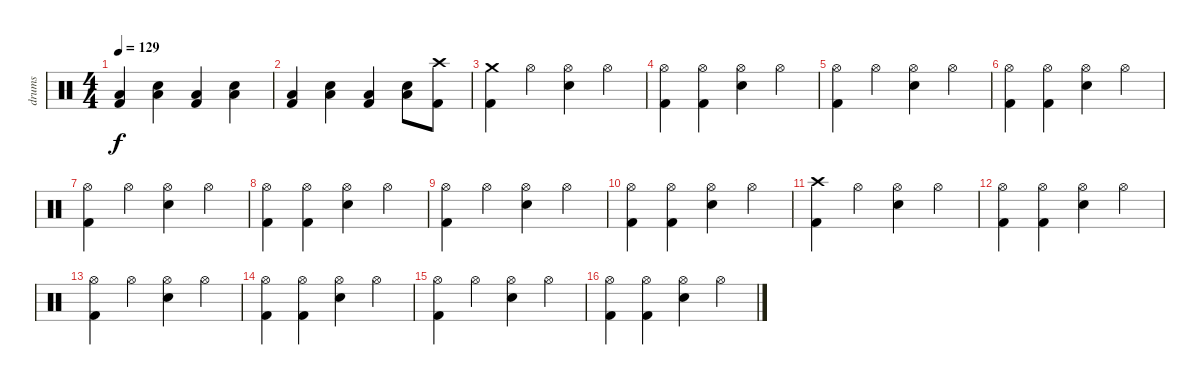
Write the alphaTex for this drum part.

\track ("drums" "drums") {instrument percussion}
\staff {score}
\articulation defaults
\ts (4 4)
\tempo 129
\clef neutral
\ks c
("Kick (hit) 2" "Low Tom (hit)").4{dy f} ("Low Tom (hit)" "Snare (hit) 2").4 ("Kick (hit) 2" "Low Tom (hit)").4 ("Low Tom (hit)" "Snare (hit) 2").4 |
("Kick (hit) 2" "Low Tom (hit)").4 ("Low Tom (hit)" "Snare (hit) 2").4 ("Kick (hit) 2" "Low Tom (hit)").4 ("Low Tom (hit)" "Snare (hit) 2").8 ("Kick (hit) 2" "Crash high (hit)").8 |
("Kick (hit) 2" "Crash medium (hit)").4 "Hi-Hat (open)".4 ("Hi-Hat (open)" "Snare (hit) 2").4 "Hi-Hat (open)".4 |
("Kick (hit) 2" "Hi-Hat (open)").4 ("Kick (hit) 2" "Hi-Hat (open)").4 ("Hi-Hat (open)" "Snare (hit) 2").4 "Hi-Hat (open)".4 |
("Kick (hit) 2" "Hi-Hat (open)").4 "Hi-Hat (open)".4 ("Hi-Hat (open)" "Snare (hit) 2").4 "Hi-Hat (open)".4 |
("Kick (hit) 2" "Hi-Hat (open)").4 ("Kick (hit) 2" "Hi-Hat (open)").4 ("Hi-Hat (open)" "Snare (hit) 2").4 "Hi-Hat (open)".4 |
("Kick (hit) 2" "Hi-Hat (open)").4 "Hi-Hat (open)".4 ("Hi-Hat (open)" "Snare (hit) 2").4 "Hi-Hat (open)".4 |
("Kick (hit) 2" "Hi-Hat (open)").4 ("Kick (hit) 2" "Hi-Hat (open)").4 ("Hi-Hat (open)" "Snare (hit) 2").4 "Hi-Hat (open)".4 |
("Kick (hit) 2" "Hi-Hat (open)").4 "Hi-Hat (open)".4 ("Hi-Hat (open)" "Snare (hit) 2").4 "Hi-Hat (open)".4 |
("Kick (hit) 2" "Hi-Hat (open)").4 ("Kick (hit) 2" "Hi-Hat (open)").4 ("Hi-Hat (open)" "Snare (hit) 2").4 "Hi-Hat (open)".4 |
("Kick (hit) 2" "Crash high (hit)").4 "Hi-Hat (open)".4 ("Hi-Hat (open)" "Snare (hit) 2").4 "Hi-Hat (open)".4 |
("Kick (hit) 2" "Hi-Hat (open)").4 ("Kick (hit) 2" "Hi-Hat (open)").4 ("Hi-Hat (open)" "Snare (hit) 2").4 "Hi-Hat (open)".4 |
("Kick (hit) 2" "Hi-Hat (open)").4 "Hi-Hat (open)".4 ("Hi-Hat (open)" "Snare (hit) 2").4 "Hi-Hat (open)".4 |
("Kick (hit) 2" "Hi-Hat (open)").4 ("Kick (hit) 2" "Hi-Hat (open)").4 ("Hi-Hat (open)" "Snare (hit) 2").4 "Hi-Hat (open)".4 |
("Kick (hit) 2" "Hi-Hat (open)").4 "Hi-Hat (open)".4 ("Hi-Hat (open)" "Snare (hit) 2").4 "Hi-Hat (open)".4 |
("Kick (hit) 2" "Hi-Hat (open)").4 ("Kick (hit) 2" "Hi-Hat (open)").4 ("Hi-Hat (open)" "Snare (hit) 2").4 "Hi-Hat (open)".4
